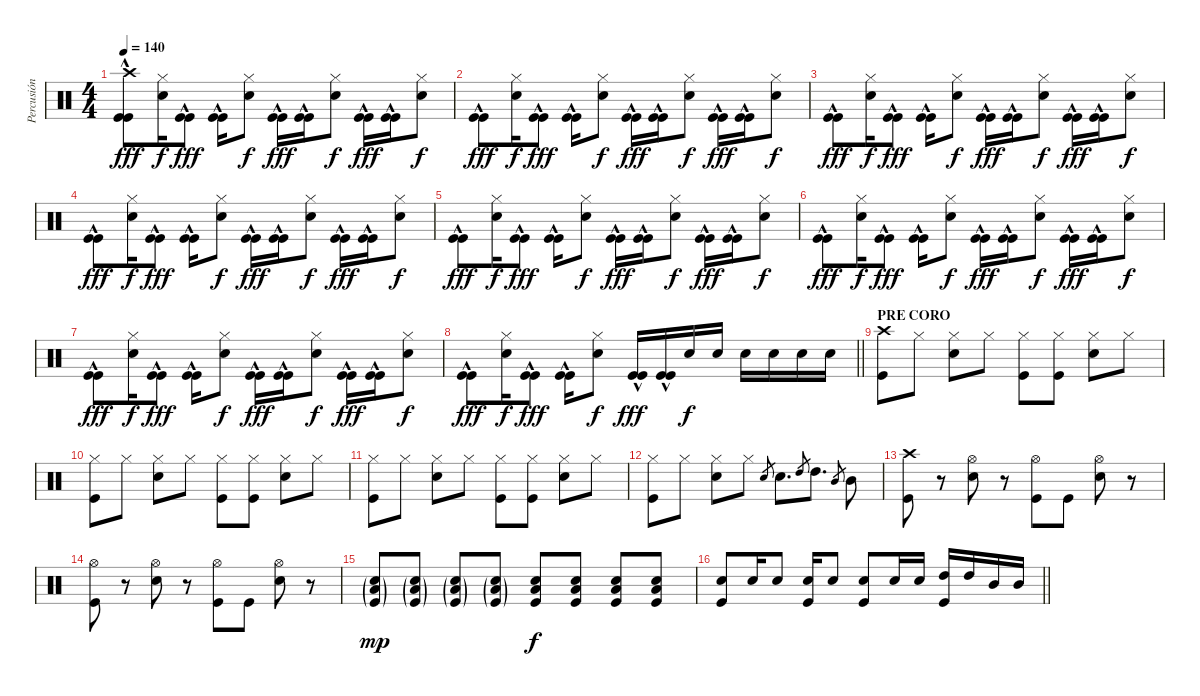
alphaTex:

\track ("Percusión" "Percusión") {instrument percussion}
\staff {score}
\articulation defaults
\ts (4 4)
\tempo 140
\clef neutral
\ks c
("Crash high (hit)" "Kick (hit)"{hac} "Kick (hit)").8{dy fff} ("Hi-Hat (closed)" "Snare (hit) 2").16{dy f} ("Kick (hit)"{hac} "Kick (hit)").8{dy fff} ("Kick (hit)" "Kick (hit)"{hac}).16 ("Hi-Hat (closed)" "Snare (hit) 2").8{dy f} ("Kick (hit)"{hac} "Kick (hit)").16{dy fff} ("Kick (hit)"{hac} "Kick (hit)").16 ("Hi-Hat (closed)" "Snare (hit) 2").8{dy f} ("Kick (hit)"{hac} "Kick (hit)").16{dy fff} ("Kick (hit)"{hac} "Kick (hit)").16 ("Hi-Hat (closed)" "Snare (hit) 2").8{dy f} |
("Kick (hit)"{hac} "Kick (hit)").8{dy fff} ("Hi-Hat (closed)" "Snare (hit) 2").16{dy f} ("Kick (hit)"{hac} "Kick (hit)").8{dy fff} ("Kick (hit)" "Kick (hit)"{hac}).16 ("Hi-Hat (closed)" "Snare (hit) 2").8{dy f} ("Kick (hit)"{hac} "Kick (hit)").16{dy fff} ("Kick (hit)"{hac} "Kick (hit)").16 ("Hi-Hat (closed)" "Snare (hit) 2").8{dy f} ("Kick (hit)"{hac} "Kick (hit)").16{dy fff} ("Kick (hit)"{hac} "Kick (hit)").16 ("Hi-Hat (closed)" "Snare (hit) 2").8{dy f} |
("Kick (hit)"{hac} "Kick (hit)").8{dy fff} ("Hi-Hat (closed)" "Snare (hit) 2").16{dy f} ("Kick (hit)"{hac} "Kick (hit)").8{dy fff} ("Kick (hit)" "Kick (hit)"{hac}).16 ("Hi-Hat (closed)" "Snare (hit) 2").8{dy f} ("Kick (hit)"{hac} "Kick (hit)").16{dy fff} ("Kick (hit)"{hac} "Kick (hit)").16 ("Hi-Hat (closed)" "Snare (hit) 2").8{dy f} ("Kick (hit)"{hac} "Kick (hit)").16{dy fff} ("Kick (hit)"{hac} "Kick (hit)").16 ("Hi-Hat (closed)" "Snare (hit) 2").8{dy f} |
("Kick (hit)"{hac} "Kick (hit)").8{dy fff} ("Hi-Hat (closed)" "Snare (hit) 2").16{dy f} ("Kick (hit)"{hac} "Kick (hit)").8{dy fff} ("Kick (hit)" "Kick (hit)"{hac}).16 ("Hi-Hat (closed)" "Snare (hit) 2").8{dy f} ("Kick (hit)"{hac} "Kick (hit)").16{dy fff} ("Kick (hit)"{hac} "Kick (hit)").16 ("Hi-Hat (closed)" "Snare (hit) 2").8{dy f} ("Kick (hit)"{hac} "Kick (hit)").16{dy fff} ("Kick (hit)"{hac} "Kick (hit)").16 ("Hi-Hat (closed)" "Snare (hit) 2").8{dy f} |
("Kick (hit)"{hac} "Kick (hit)").8{dy fff} ("Hi-Hat (closed)" "Snare (hit) 2").16{dy f} ("Kick (hit)"{hac} "Kick (hit)").8{dy fff} ("Kick (hit)" "Kick (hit)"{hac}).16 ("Hi-Hat (closed)" "Snare (hit) 2").8{dy f} ("Kick (hit)"{hac} "Kick (hit)").16{dy fff} ("Kick (hit)"{hac} "Kick (hit)").16 ("Hi-Hat (closed)" "Snare (hit) 2").8{dy f} ("Kick (hit)"{hac} "Kick (hit)").16{dy fff} ("Kick (hit)"{hac} "Kick (hit)").16 ("Hi-Hat (closed)" "Snare (hit) 2").8{dy f} |
("Kick (hit)"{hac} "Kick (hit)").8{dy fff} ("Hi-Hat (closed)" "Snare (hit) 2").16{dy f} ("Kick (hit)"{hac} "Kick (hit)").8{dy fff} ("Kick (hit)" "Kick (hit)"{hac}).16 ("Hi-Hat (closed)" "Snare (hit) 2").8{dy f} ("Kick (hit)"{hac} "Kick (hit)").16{dy fff} ("Kick (hit)"{hac} "Kick (hit)").16 ("Hi-Hat (closed)" "Snare (hit) 2").8{dy f} ("Kick (hit)"{hac} "Kick (hit)").16{dy fff} ("Kick (hit)"{hac} "Kick (hit)").16 ("Hi-Hat (closed)" "Snare (hit) 2").8{dy f} |
("Kick (hit)"{hac} "Kick (hit)").8{dy fff} ("Hi-Hat (closed)" "Snare (hit) 2").16{dy f} ("Kick (hit)"{hac} "Kick (hit)").8{dy fff} ("Kick (hit)" "Kick (hit)"{hac}).16 ("Hi-Hat (closed)" "Snare (hit) 2").8{dy f} ("Kick (hit)"{hac} "Kick (hit)").16{dy fff} ("Kick (hit)"{hac} "Kick (hit)").16 ("Hi-Hat (closed)" "Snare (hit) 2").8{dy f} ("Kick (hit)"{hac} "Kick (hit)").16{dy fff} ("Kick (hit)"{hac} "Kick (hit)").16 ("Hi-Hat (closed)" "Snare (hit) 2").8{dy f} |
\barLineRight lightlight
("Kick (hit)"{hac} "Kick (hit)").8{dy fff} ("Hi-Hat (closed)" "Snare (hit) 2").16{dy f} ("Kick (hit)"{hac} "Kick (hit)").8{dy fff} ("Kick (hit)" "Kick (hit)"{hac}).16 ("Hi-Hat (closed)" "Snare (hit) 2").8{dy f} ("Kick (hit)"{hac} "Kick (hit)").16{dy fff} ("Kick (hit)"{hac} "Kick (hit)").16 "Snare (hit) 2".16{dy f} "Snare (hit) 2".16 "Snare (hit) 2".16 "Snare (hit) 2".16 "Snare (hit) 2".16 "Snare (hit) 2".16 |
\section ("" "PRE CORO")
("Crash high (hit)" "Kick (hit)").8 "Hi-Hat (closed)".8 ("Hi-Hat (closed)" "Snare (hit) 2").8 "Hi-Hat (closed)".8 ("Kick (hit)" "Hi-Hat (closed)").8 ("Kick (hit)" "Hi-Hat (closed)").8 ("Hi-Hat (closed)" "Snare (hit) 2").8 "Hi-Hat (closed)".8 |
("Hi-Hat (closed)" "Kick (hit)").8 "Hi-Hat (closed)".8 ("Hi-Hat (closed)" "Snare (hit) 2").8 "Hi-Hat (closed)".8 ("Kick (hit)" "Hi-Hat (closed)").8 ("Kick (hit)" "Hi-Hat (closed)").8 ("Hi-Hat (closed)" "Snare (hit) 2").8 "Hi-Hat (closed)".8 |
("Hi-Hat (closed)" "Kick (hit)").8 "Hi-Hat (closed)".8 ("Hi-Hat (closed)" "Snare (hit) 2").8 "Hi-Hat (closed)".8 ("Kick (hit)" "Hi-Hat (closed)").8 ("Kick (hit)" "Hi-Hat (closed)").8 ("Hi-Hat (closed)" "Snare (hit) 2").8 "Hi-Hat (closed)".8 |
("Hi-Hat (closed)" "Kick (hit)").8 "Hi-Hat (closed)".8 ("Hi-Hat (closed)" "Snare (hit) 2").8 "Hi-Hat (closed)".8 "Snare (hit) 2".8{gr} "Snare (hit) 2".8{d} "High Tom (hit)".8{gr} "High Tom (hit)".8{d} "Mid Tom (hit)".8{gr} "Mid Tom (hit)".8 |
("Crash high (hit)" "Kick (hit)").8 r.8 ("Hi-Hat (open)" "Snare (hit) 2").8 r.8 ("Kick (hit)" "Hi-Hat (open)").8 "Kick (hit)".8 ("Hi-Hat (open)" "Snare (hit) 2").8 r.8 |
("Kick (hit)" "Hi-Hat (open)").8 r.8 ("Snare (hit) 2" "Hi-Hat (open)").8 r.8 ("Kick (hit)" "Hi-Hat (open)").8 "Kick (hit)".8 ("Snare (hit) 2" "Hi-Hat (open)").8 r.8 |
("Low Floor Tom (hit)"{g} "Snare (hit) 2"{g} "Kick (hit)"{g}).8{dy mp} ("Low Floor Tom (hit)"{g} "Snare (hit) 2"{g} "Kick (hit)"{g}).8 ("Kick (hit)"{g} "Low Floor Tom (hit)"{g} "Snare (hit) 2"{g}).8 ("Kick (hit)"{g} "Low Floor Tom (hit)"{g} "Snare (hit) 2"{g}).8 ("Low Floor Tom (hit)" "Snare (hit) 2" "Kick (hit)").8{dy f} ("Low Floor Tom (hit)" "Snare (hit) 2" "Kick (hit)").8 ("Kick (hit)" "Low Floor Tom (hit)" "Snare (hit) 2").8 ("Kick (hit)" "Low Floor Tom (hit)" "Snare (hit) 2").8 |
\barLineRight lightlight
("Snare (hit) 2" "Kick (hit)").8 "Snare (hit) 2".16 "Snare (hit) 2".8 ("Snare (hit) 2" "Kick (hit)").16 "Snare (hit) 2".8 ("Snare (hit) 2" "Kick (hit)").8 "Snare (hit) 2".16 "Snare (hit) 2".16 ("High Tom (hit)" "Kick (hit)").16 "High Tom (hit)".16 "Mid Tom (hit)".16 "Mid Tom (hit)".16
